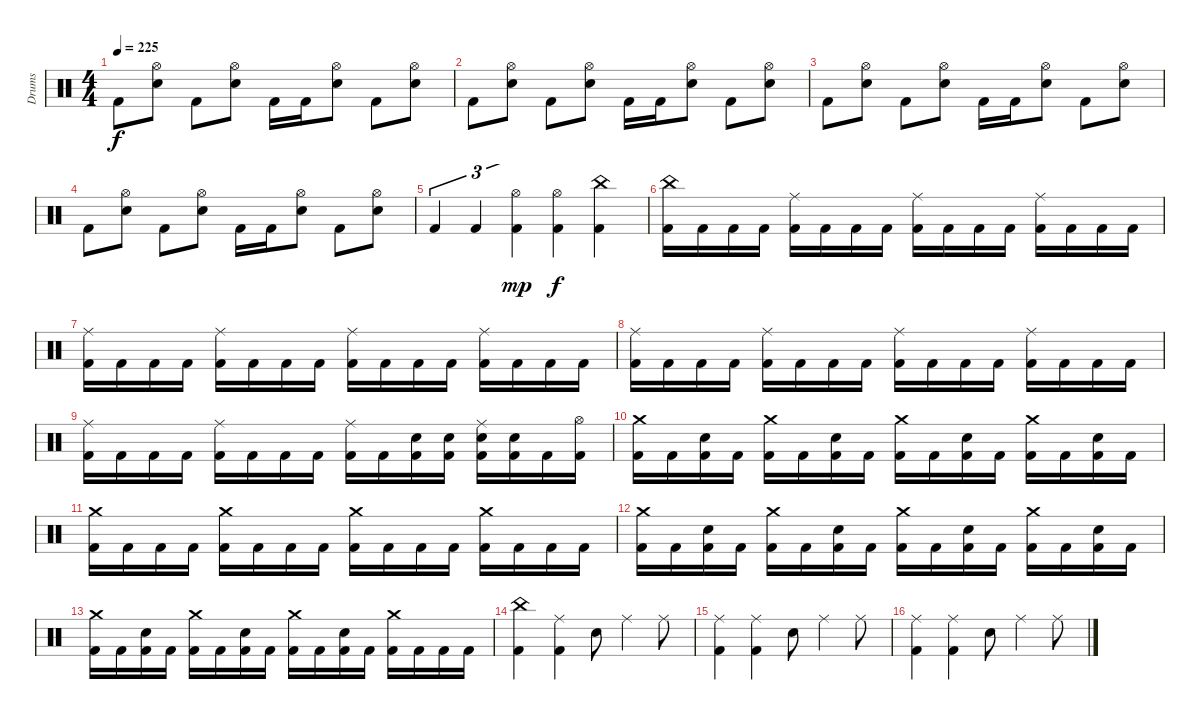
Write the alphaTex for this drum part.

\track ("Drums" "Drums") {instrument percussion}
\staff {score}
\articulation defaults
\ts (4 4)
\tempo 225
\clef neutral
\ks c "Kick (hit) 2".8{dy f}
("Hi-Hat (open)" "Electric Snare (hit)").8 "Kick (hit) 2".8 ("Hi-Hat (open)" "Electric Snare (hit)").8 "Kick (hit) 2".16 "Kick (hit) 2".16 ("Hi-Hat (open)" "Electric Snare (hit)").8 "Kick (hit) 2".8 ("Hi-Hat (open)" "Electric Snare (hit)").8 |
"Kick (hit) 2".8 ("Hi-Hat (open)" "Electric Snare (hit)").8 "Kick (hit) 2".8 ("Hi-Hat (open)" "Electric Snare (hit)").8 "Kick (hit) 2".16 "Kick (hit) 2".16 ("Hi-Hat (open)" "Electric Snare (hit)").8 "Kick (hit) 2".8 ("Hi-Hat (open)" "Electric Snare (hit)").8 |
"Kick (hit) 2".8 ("Hi-Hat (open)" "Electric Snare (hit)").8 "Kick (hit) 2".8 ("Hi-Hat (open)" "Electric Snare (hit)").8 "Kick (hit) 2".16 "Kick (hit) 2".16 ("Hi-Hat (open)" "Electric Snare (hit)").8 "Kick (hit) 2".8 ("Hi-Hat (open)" "Electric Snare (hit)").8 |
"Kick (hit) 2".8 ("Hi-Hat (open)" "Electric Snare (hit)").8 "Kick (hit) 2".8 ("Hi-Hat (open)" "Electric Snare (hit)").8 "Kick (hit) 2".16 "Kick (hit) 2".16 ("Hi-Hat (open)" "Electric Snare (hit)").8 "Kick (hit) 2".8 ("Hi-Hat (open)" "Electric Snare (hit)").8 |
"Kick (hit) 2".4{tu (3 2)} "Kick (hit) 2".4{tu (3 2)} ("Hi-Hat (open)" "Kick (hit) 2").4{tu (3 2) dy mp} ("Hi-Hat (open)" "Kick (hit) 2").4{dy f} ("China (hit)" "Kick (hit) 2").4 |
("China (hit)" "Kick (hit) 2").16 "Kick (hit) 2".16 "Kick (hit) 2".16 "Kick (hit) 2".16 ("Ride (middle)" "Kick (hit) 2").16 "Kick (hit) 2".16 "Kick (hit) 2".16 "Kick (hit) 2".16 ("Ride (middle)" "Kick (hit) 2").16 "Kick (hit) 2".16 "Kick (hit) 2".16 "Kick (hit) 2".16 ("Ride (middle)" "Kick (hit) 2").16 "Kick (hit) 2".16 "Kick (hit) 2".16 "Kick (hit) 2".16 |
("Ride (middle)" "Kick (hit) 2").16 "Kick (hit) 2".16 "Kick (hit) 2".16 "Kick (hit) 2".16 ("Ride (middle)" "Kick (hit) 2").16 "Kick (hit) 2".16 "Kick (hit) 2".16 "Kick (hit) 2".16 ("Ride (middle)" "Kick (hit) 2").16 "Kick (hit) 2".16 "Kick (hit) 2".16 "Kick (hit) 2".16 ("Ride (middle)" "Kick (hit) 2").16 "Kick (hit) 2".16 "Kick (hit) 2".16 "Kick (hit) 2".16 |
("Ride (middle)" "Kick (hit) 2").16 "Kick (hit) 2".16 "Kick (hit) 2".16 "Kick (hit) 2".16 ("Ride (middle)" "Kick (hit) 2").16 "Kick (hit) 2".16 "Kick (hit) 2".16 "Kick (hit) 2".16 ("Ride (middle)" "Kick (hit) 2").16 "Kick (hit) 2".16 "Kick (hit) 2".16 "Kick (hit) 2".16 ("Ride (middle)" "Kick (hit) 2").16 "Kick (hit) 2".16 "Kick (hit) 2".16 "Kick (hit) 2".16 |
("Ride (middle)" "Kick (hit) 2").16 "Kick (hit) 2".16 "Kick (hit) 2".16 "Kick (hit) 2".16 ("Ride (middle)" "Kick (hit) 2").16 "Kick (hit) 2".16 "Kick (hit) 2".16 "Kick (hit) 2".16 ("Ride (middle)" "Kick (hit) 2").16 "Kick (hit) 2".16 ("Electric Snare (hit)" "Kick (hit) 2").16 ("Electric Snare (hit)" "Kick (hit) 2").16 ("Ride (middle)" "Electric Snare (hit)" "Kick (hit) 2").16 ("Electric Snare (hit)" "Kick (hit) 2").16 "Kick (hit) 2".16 ("Hi-Hat (open)" "Kick (hit) 2").16 |
("Crash medium (hit)" "Kick (hit) 2").16 "Kick (hit) 2".16 ("Electric Snare (hit)" "Kick (hit) 2").16 "Kick (hit) 2".16 ("Crash medium (hit)" "Kick (hit) 2").16 "Kick (hit) 2".16 ("Electric Snare (hit)" "Kick (hit) 2").16 "Kick (hit) 2".16 ("Crash medium (hit)" "Kick (hit) 2").16 "Kick (hit) 2".16 ("Electric Snare (hit)" "Kick (hit) 2").16 "Kick (hit) 2".16 ("Crash medium (hit)" "Kick (hit) 2").16 "Kick (hit) 2".16 ("Electric Snare (hit)" "Kick (hit) 2").16 "Kick (hit) 2".16 |
("Crash medium (hit)" "Kick (hit) 2").16 "Kick (hit) 2".16 "Kick (hit) 2".16 "Kick (hit) 2".16 ("Crash medium (hit)" "Kick (hit) 2").16 "Kick (hit) 2".16 "Kick (hit) 2".16 "Kick (hit) 2".16 ("Crash medium (hit)" "Kick (hit) 2").16 "Kick (hit) 2".16 "Kick (hit) 2".16 "Kick (hit) 2".16 ("Crash medium (hit)" "Kick (hit) 2").16 "Kick (hit) 2".16 "Kick (hit) 2".16 "Kick (hit) 2".16 |
("Crash medium (hit)" "Kick (hit) 2").16 "Kick (hit) 2".16 ("Electric Snare (hit)" "Kick (hit) 2").16 "Kick (hit) 2".16 ("Crash medium (hit)" "Kick (hit) 2").16 "Kick (hit) 2".16 ("Electric Snare (hit)" "Kick (hit) 2").16 "Kick (hit) 2".16 ("Crash medium (hit)" "Kick (hit) 2").16 "Kick (hit) 2".16 ("Electric Snare (hit)" "Kick (hit) 2").16 "Kick (hit) 2".16 ("Crash medium (hit)" "Kick (hit) 2").16 "Kick (hit) 2".16 ("Electric Snare (hit)" "Kick (hit) 2").16 "Kick (hit) 2".16 |
("Crash medium (hit)" "Kick (hit) 2").16 "Kick (hit) 2".16 ("Electric Snare (hit)" "Kick (hit) 2").16 "Kick (hit) 2".16 ("Crash medium (hit)" "Kick (hit) 2").16 "Kick (hit) 2".16 ("Electric Snare (hit)" "Kick (hit) 2").16 "Kick (hit) 2".16 ("Crash medium (hit)" "Kick (hit) 2").16 "Kick (hit) 2".16 ("Electric Snare (hit)" "Kick (hit) 2").16 "Kick (hit) 2".16 ("Crash medium (hit)" "Kick (hit) 2").16 "Kick (hit) 2".16 "Kick (hit) 2".16 "Kick (hit) 2".16 |
("China (hit)" "Kick (hit) 2").4 ("Ride (middle)" "Kick (hit) 2").4 "Electric Snare (hit)".8 "Ride (middle)".4 "Ride (middle)".8 |
("Ride (middle)" "Kick (hit) 2").4 ("Ride (middle)" "Kick (hit) 2").4 "Electric Snare (hit)".8 "Ride (middle)".4 "Ride (middle)".8 |
("Ride (middle)" "Kick (hit) 2").4 ("Ride (middle)" "Kick (hit) 2").4 "Electric Snare (hit)".8 "Ride (middle)".4 "Ride (middle)".8
